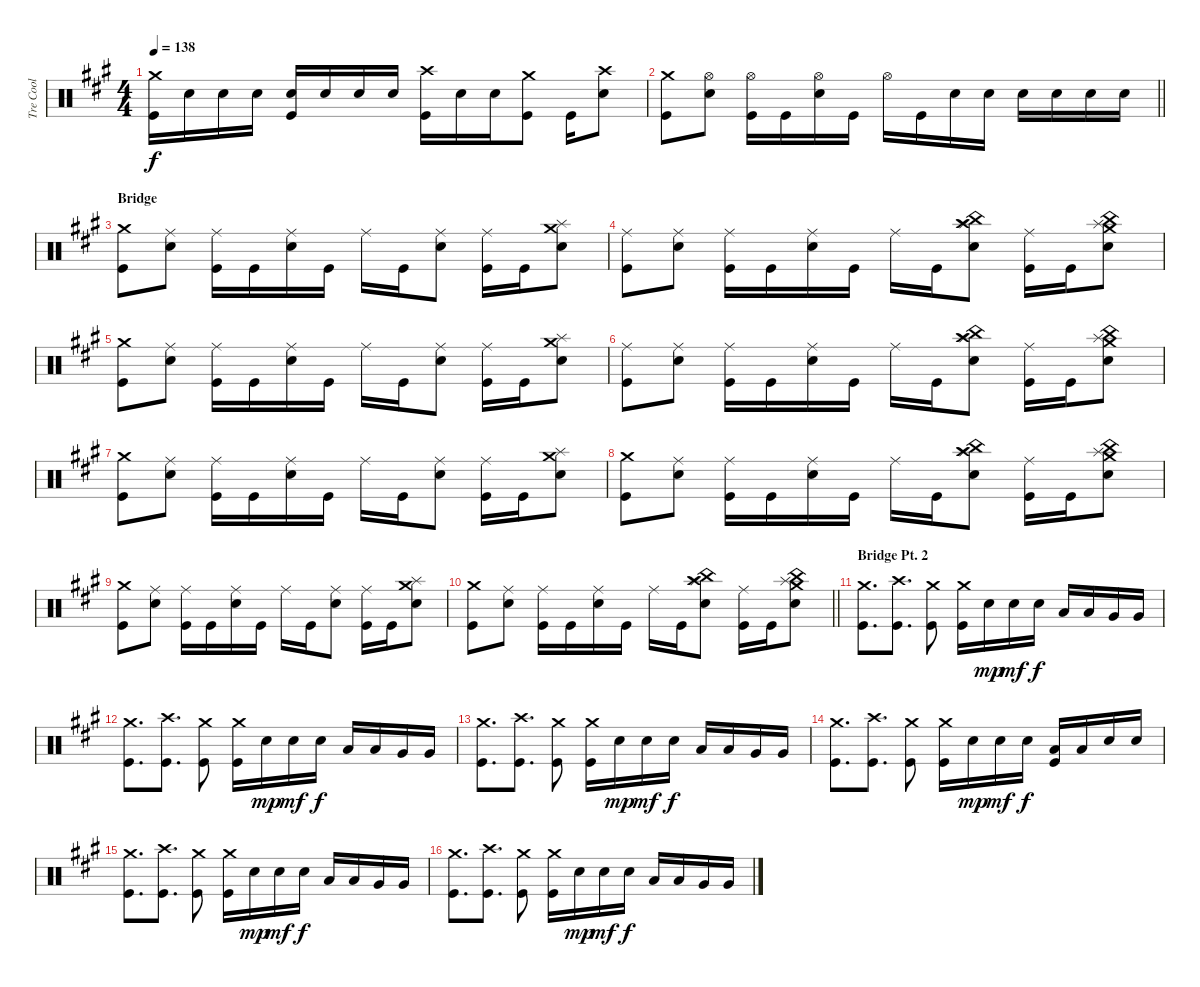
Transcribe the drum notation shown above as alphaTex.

\track ("Tre Cool" "Tre Cool") {instrument percussion}
\staff {score}
\articulation defaults
\ts (4 4)
\tempo 138
\clef neutral
\ks a
("Crash medium (hit)" "Kick (hit)").16{dy f} "Electric Snare (hit)".16 "Electric Snare (hit)".16 "Electric Snare (hit)".16 ("Electric Snare (hit)" "Kick (hit)").16 "Electric Snare (hit)".16 "Electric Snare (hit)".16 "Electric Snare (hit)".16 ("Crash high (hit)" "Kick (hit)").16 "Electric Snare (hit)".16 "Electric Snare (hit)".16 ("Crash medium (hit)" "Kick (hit)").8 "Kick (hit)".16 ("Crash high (hit)" "Electric Snare (hit)").8 |
\barLineRight lightlight
("Crash medium (hit)" "Kick (hit)").8 ("Hi-Hat (open)" "Electric Snare (hit)").8 ("Hi-Hat (open)" "Kick (hit)").16 "Kick (hit)".16 ("Hi-Hat (open)" "Electric Snare (hit)").16 "Kick (hit)".16 "Hi-Hat (open)".16 "Kick (hit)".16 "Electric Snare (hit)".16 "Electric Snare (hit)".16 "Electric Snare (hit)".16 "Electric Snare (hit)".16 "Electric Snare (hit)".16 "Electric Snare (hit)".16 |
\section ("" "Bridge")
("Crash medium (hit)" "Kick (hit)").8 ("Ride (middle)" "Electric Snare (hit)").8 ("Ride (middle)" "Kick (hit)").16 "Kick (hit)".16 ("Ride (middle)" "Electric Snare (hit)").16 "Kick (hit)".16 "Ride (middle)".16 "Kick (hit)".16 ("Ride (middle)" "Electric Snare (hit)").8 ("Ride (middle)" "Kick (hit)").16 "Kick (hit)".16 ("Crash medium (hit)" "Splash (hit)" "Electric Snare (hit)").8 |
("Ride (middle)" "Kick (hit)").8 ("Ride (middle)" "Electric Snare (hit)").8 ("Ride (middle)" "Kick (hit)").16 "Kick (hit)".16 ("Ride (middle)" "Electric Snare (hit)").16 "Kick (hit)".16 "Ride (middle)".16 "Kick (hit)".16 ("Crash high (hit)" "China (hit)" "Electric Snare (hit)" "Splash (hit)").8 ("Ride (middle)" "Kick (hit)").16 "Kick (hit)".16 ("Crash medium (hit)" "China (hit)" "Electric Snare (hit)" "Splash (hit)").8 |
("Crash medium (hit)" "Kick (hit)").8 ("Ride (middle)" "Electric Snare (hit)").8 ("Ride (middle)" "Kick (hit)").16 "Kick (hit)".16 ("Ride (middle)" "Electric Snare (hit)").16 "Kick (hit)".16 "Ride (middle)".16 "Kick (hit)".16 ("Ride (middle)" "Electric Snare (hit)").8 ("Ride (middle)" "Kick (hit)").16 "Kick (hit)".16 ("Crash medium (hit)" "Splash (hit)" "Electric Snare (hit)").8 |
("Ride (middle)" "Kick (hit)").8 ("Ride (middle)" "Electric Snare (hit)").8 ("Ride (middle)" "Kick (hit)").16 "Kick (hit)".16 ("Ride (middle)" "Electric Snare (hit)").16 "Kick (hit)".16 "Ride (middle)".16 "Kick (hit)".16 ("Crash high (hit)" "China (hit)" "Electric Snare (hit)" "Splash (hit)").8 ("Ride (middle)" "Kick (hit)").16 "Kick (hit)".16 ("Crash medium (hit)" "China (hit)" "Electric Snare (hit)" "Splash (hit)").8 |
("Crash medium (hit)" "Kick (hit)").8 ("Ride (middle)" "Electric Snare (hit)").8 ("Ride (middle)" "Kick (hit)").16 "Kick (hit)".16 ("Ride (middle)" "Electric Snare (hit)").16 "Kick (hit)".16 "Ride (middle)".16 "Kick (hit)".16 ("Ride (middle)" "Electric Snare (hit)").8 ("Ride (middle)" "Kick (hit)").16 "Kick (hit)".16 ("Crash medium (hit)" "Splash (hit)" "Electric Snare (hit)").8 |
("Crash medium (hit)" "Kick (hit)").8 ("Ride (middle)" "Electric Snare (hit)").8 ("Ride (middle)" "Kick (hit)").16 "Kick (hit)".16 ("Ride (middle)" "Electric Snare (hit)").16 "Kick (hit)".16 "Ride (middle)".16 "Kick (hit)".16 ("Crash high (hit)" "China (hit)" "Electric Snare (hit)" "Splash (hit)").8 ("Ride (middle)" "Kick (hit)").16 "Kick (hit)".16 ("Crash medium (hit)" "China (hit)" "Electric Snare (hit)" "Splash (hit)").8 |
("Crash medium (hit)" "Kick (hit)").8 ("Ride (middle)" "Electric Snare (hit)").8 ("Ride (middle)" "Kick (hit)").16 "Kick (hit)".16 ("Ride (middle)" "Electric Snare (hit)").16 "Kick (hit)".16 "Ride (middle)".16 "Kick (hit)".16 ("Ride (middle)" "Electric Snare (hit)").8 ("Ride (middle)" "Kick (hit)").16 "Kick (hit)".16 ("Crash medium (hit)" "Splash (hit)" "Electric Snare (hit)").8 |
\barLineRight lightlight
("Crash medium (hit)" "Kick (hit)").8 ("Ride (middle)" "Electric Snare (hit)").8 ("Ride (middle)" "Kick (hit)").16 "Kick (hit)".16 ("Ride (middle)" "Electric Snare (hit)").16 "Kick (hit)".16 "Ride (middle)".16 "Kick (hit)".16 ("Crash high (hit)" "China (hit)" "Electric Snare (hit)" "Splash (hit)").8 ("Ride (middle)" "Kick (hit)").16 "Kick (hit)".16 ("Crash medium (hit)" "China (hit)" "Electric Snare (hit)" "Splash (hit)").8 |
\section ("" "Bridge Pt. 2")
("Crash medium (hit)" "Kick (hit)").8{d} ("Crash high (hit)" "Kick (hit)").8{d} ("Crash medium (hit)" "Kick (hit)").8 ("Crash medium (hit)" "Kick (hit)").16 "Electric Snare (hit)".16{dy mp} "Electric Snare (hit)".16{dy mf} "Electric Snare (hit)".16{dy f} "Low Tom (hit)".16 "Low Tom (hit)".16 "Very Low Tom (hit)".16 "Very Low Tom (hit)".16 |
("Crash medium (hit)" "Kick (hit)").8{d} ("Crash high (hit)" "Kick (hit)").8{d} ("Crash medium (hit)" "Kick (hit)").8 ("Crash medium (hit)" "Kick (hit)").16 "Electric Snare (hit)".16{dy mp} "Electric Snare (hit)".16{dy mf} "Electric Snare (hit)".16{dy f} "Low Tom (hit)".16 "Low Tom (hit)".16 "Very Low Tom (hit)".16 "Very Low Tom (hit)".16 |
("Crash medium (hit)" "Kick (hit)").8{d} ("Crash high (hit)" "Kick (hit)").8{d} ("Crash medium (hit)" "Kick (hit)").8 ("Crash medium (hit)" "Kick (hit)").16 "Electric Snare (hit)".16{dy mp} "Electric Snare (hit)".16{dy mf} "Electric Snare (hit)".16{dy f} "Low Tom (hit)".16 "Low Tom (hit)".16 "Very Low Tom (hit)".16 "Very Low Tom (hit)".16 |
("Crash medium (hit)" "Kick (hit)").8{d} ("Crash high (hit)" "Kick (hit)").8{d} ("Crash medium (hit)" "Kick (hit)").8 ("Crash medium (hit)" "Kick (hit)").16 "Electric Snare (hit)".16{dy mp} "Electric Snare (hit)".16{dy mf} "Electric Snare (hit)".16{dy f} ("Low Tom (hit)" "Kick (hit)").16 "Low Tom (hit)".16 "Electric Snare (hit)".16 "Electric Snare (hit)".16 |
("Crash medium (hit)" "Kick (hit)").8{d} ("Crash high (hit)" "Kick (hit)").8{d} ("Crash medium (hit)" "Kick (hit)").8 ("Crash medium (hit)" "Kick (hit)").16 "Electric Snare (hit)".16{dy mp} "Electric Snare (hit)".16{dy mf} "Electric Snare (hit)".16{dy f} "Low Tom (hit)".16 "Low Tom (hit)".16 "Very Low Tom (hit)".16 "Very Low Tom (hit)".16 |
("Crash medium (hit)" "Kick (hit)").8{d} ("Crash high (hit)" "Kick (hit)").8{d} ("Crash medium (hit)" "Kick (hit)").8 ("Crash medium (hit)" "Kick (hit)").16 "Electric Snare (hit)".16{dy mp} "Electric Snare (hit)".16{dy mf} "Electric Snare (hit)".16{dy f} "Low Tom (hit)".16 "Low Tom (hit)".16 "Very Low Tom (hit)".16 "Very Low Tom (hit)".16
